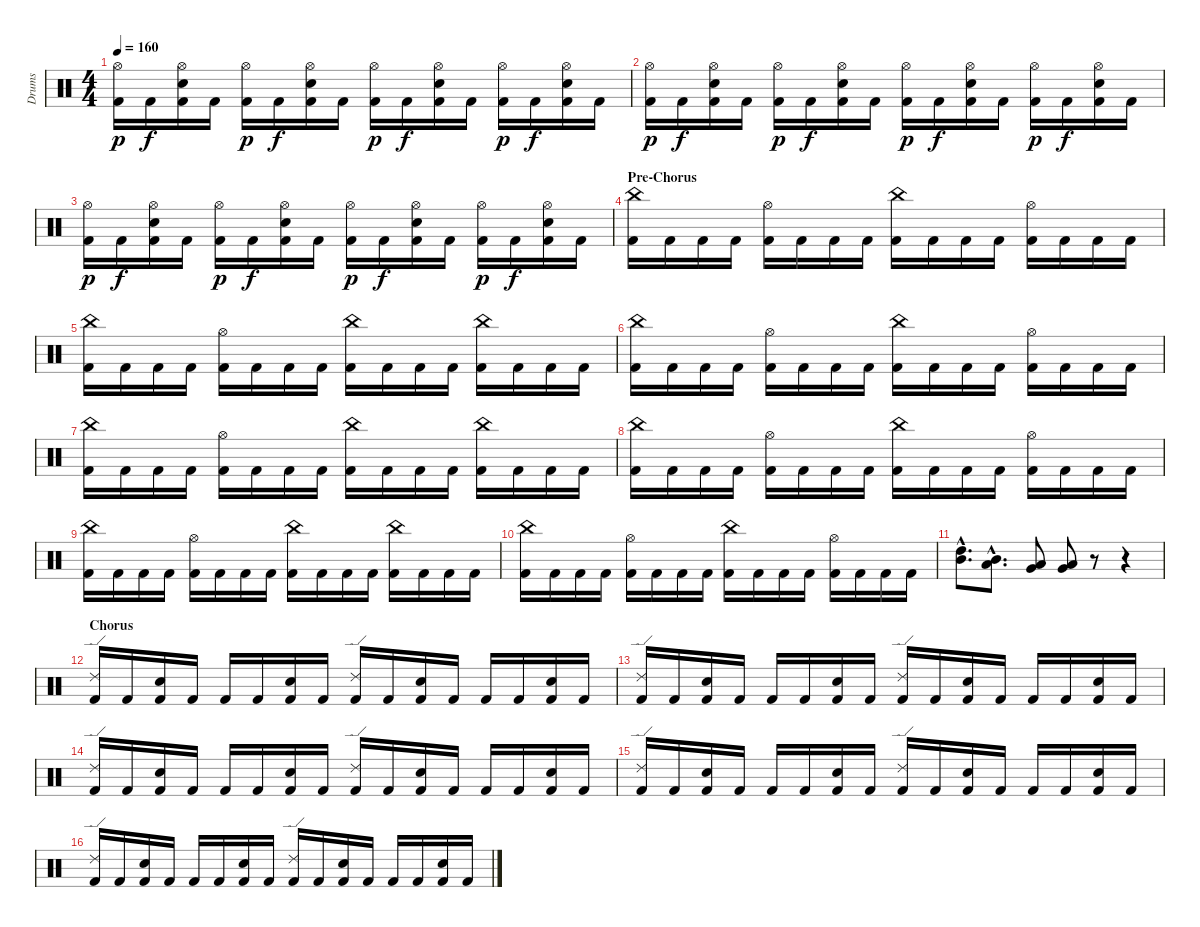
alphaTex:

\track ("Drums" "Drums") {instrument percussion}
\staff {score}
\articulation defaults
\ts (4 4)
\tempo 160
\clef neutral
\ks c
("Hi-Hat (open)" "Kick (hit) 2").16{dy p} "Kick (hit) 2".16{dy f} ("Hi-Hat (open)" "Electric Snare (hit)" "Kick (hit) 2").16 "Kick (hit) 2".16 ("Hi-Hat (open)" "Kick (hit) 2").16{dy p} "Kick (hit) 2".16{dy f} ("Hi-Hat (open)" "Electric Snare (hit)" "Kick (hit) 2").16 "Kick (hit) 2".16 ("Hi-Hat (open)" "Kick (hit) 2").16{dy p} "Kick (hit) 2".16{dy f} ("Hi-Hat (open)" "Electric Snare (hit)" "Kick (hit) 2").16 "Kick (hit) 2".16 ("Hi-Hat (open)" "Kick (hit) 2").16{dy p} "Kick (hit) 2".16{dy f} ("Hi-Hat (open)" "Electric Snare (hit)" "Kick (hit) 2").16 "Kick (hit) 2".16 |
("Hi-Hat (open)" "Kick (hit) 2").16{dy p} "Kick (hit) 2".16{dy f} ("Hi-Hat (open)" "Electric Snare (hit)" "Kick (hit) 2").16 "Kick (hit) 2".16 ("Hi-Hat (open)" "Kick (hit) 2").16{dy p} "Kick (hit) 2".16{dy f} ("Hi-Hat (open)" "Electric Snare (hit)" "Kick (hit) 2").16 "Kick (hit) 2".16 ("Hi-Hat (open)" "Kick (hit) 2").16{dy p} "Kick (hit) 2".16{dy f} ("Hi-Hat (open)" "Electric Snare (hit)" "Kick (hit) 2").16 "Kick (hit) 2".16 ("Hi-Hat (open)" "Kick (hit) 2").16{dy p} "Kick (hit) 2".16{dy f} ("Hi-Hat (open)" "Electric Snare (hit)" "Kick (hit) 2").16 "Kick (hit) 2".16 |
("Hi-Hat (open)" "Kick (hit) 2").16{dy p} "Kick (hit) 2".16{dy f} ("Hi-Hat (open)" "Electric Snare (hit)" "Kick (hit) 2").16 "Kick (hit) 2".16 ("Hi-Hat (open)" "Kick (hit) 2").16{dy p} "Kick (hit) 2".16{dy f} ("Hi-Hat (open)" "Electric Snare (hit)" "Kick (hit) 2").16 "Kick (hit) 2".16 ("Hi-Hat (open)" "Kick (hit) 2").16{dy p} "Kick (hit) 2".16{dy f} ("Hi-Hat (open)" "Electric Snare (hit)" "Kick (hit) 2").16 "Kick (hit) 2".16 ("Hi-Hat (open)" "Kick (hit) 2").16{dy p} "Kick (hit) 2".16{dy f} ("Hi-Hat (open)" "Electric Snare (hit)" "Kick (hit) 2").16 "Kick (hit) 2".16 |
\section ("" "Pre-Chorus")
("China (hit)" "Kick (hit) 2").16 "Kick (hit) 2".16 "Kick (hit) 2".16 "Kick (hit) 2".16 ("Hi-Hat (open)" "Kick (hit) 2").16 "Kick (hit) 2".16 "Kick (hit) 2".16 "Kick (hit) 2".16 ("China (hit)" "Kick (hit) 2").16 "Kick (hit) 2".16 "Kick (hit) 2".16 "Kick (hit) 2".16 ("Hi-Hat (open)" "Kick (hit) 2").16 "Kick (hit) 2".16 "Kick (hit) 2".16 "Kick (hit) 2".16 |
("China (hit)" "Kick (hit) 2").16 "Kick (hit) 2".16 "Kick (hit) 2".16 "Kick (hit) 2".16 ("Hi-Hat (open)" "Kick (hit) 2").16 "Kick (hit) 2".16 "Kick (hit) 2".16 "Kick (hit) 2".16 ("China (hit)" "Kick (hit) 2").16 "Kick (hit) 2".16 "Kick (hit) 2".16 "Kick (hit) 2".16 ("China (hit)" "Kick (hit) 2").16 "Kick (hit) 2".16 "Kick (hit) 2".16 "Kick (hit) 2".16 |
("China (hit)" "Kick (hit) 2").16 "Kick (hit) 2".16 "Kick (hit) 2".16 "Kick (hit) 2".16 ("Hi-Hat (open)" "Kick (hit) 2").16 "Kick (hit) 2".16 "Kick (hit) 2".16 "Kick (hit) 2".16 ("China (hit)" "Kick (hit) 2").16 "Kick (hit) 2".16 "Kick (hit) 2".16 "Kick (hit) 2".16 ("Hi-Hat (open)" "Kick (hit) 2").16 "Kick (hit) 2".16 "Kick (hit) 2".16 "Kick (hit) 2".16 |
("China (hit)" "Kick (hit) 2").16 "Kick (hit) 2".16 "Kick (hit) 2".16 "Kick (hit) 2".16 ("Hi-Hat (open)" "Kick (hit) 2").16 "Kick (hit) 2".16 "Kick (hit) 2".16 "Kick (hit) 2".16 ("China (hit)" "Kick (hit) 2").16 "Kick (hit) 2".16 "Kick (hit) 2".16 "Kick (hit) 2".16 ("China (hit)" "Kick (hit) 2").16 "Kick (hit) 2".16 "Kick (hit) 2".16 "Kick (hit) 2".16 |
("China (hit)" "Kick (hit) 2").16 "Kick (hit) 2".16 "Kick (hit) 2".16 "Kick (hit) 2".16 ("Hi-Hat (open)" "Kick (hit) 2").16 "Kick (hit) 2".16 "Kick (hit) 2".16 "Kick (hit) 2".16 ("China (hit)" "Kick (hit) 2").16 "Kick (hit) 2".16 "Kick (hit) 2".16 "Kick (hit) 2".16 ("Hi-Hat (open)" "Kick (hit) 2").16 "Kick (hit) 2".16 "Kick (hit) 2".16 "Kick (hit) 2".16 |
("China (hit)" "Kick (hit) 2").16 "Kick (hit) 2".16 "Kick (hit) 2".16 "Kick (hit) 2".16 ("Hi-Hat (open)" "Kick (hit) 2").16 "Kick (hit) 2".16 "Kick (hit) 2".16 "Kick (hit) 2".16 ("China (hit)" "Kick (hit) 2").16 "Kick (hit) 2".16 "Kick (hit) 2".16 "Kick (hit) 2".16 ("China (hit)" "Kick (hit) 2").16 "Kick (hit) 2".16 "Kick (hit) 2".16 "Kick (hit) 2".16 |
("China (hit)" "Kick (hit) 2").16 "Kick (hit) 2".16 "Kick (hit) 2".16 "Kick (hit) 2".16 ("Hi-Hat (open)" "Kick (hit) 2").16 "Kick (hit) 2".16 "Kick (hit) 2".16 "Kick (hit) 2".16 ("China (hit)" "Kick (hit) 2").16 "Kick (hit) 2".16 "Kick (hit) 2".16 "Kick (hit) 2".16 ("Hi-Hat (open)" "Kick (hit) 2").16 "Kick (hit) 2".16 "Kick (hit) 2".16 "Kick (hit) 2".16 |
("High Tom (hit)"{hac} "Mid Tom (hit)"{hac}).8{d} ("Mid Tom (hit)"{hac} "Low Tom (hit)"{hac}).8{d} ("Low Tom (hit)" "Very Low Tom (hit)").8 ("Very Low Tom (hit)" "Low Floor Tom (hit)").8 r.8 r.4 |
\section ("" "Chorus")
("Ride (edge) 2" "Kick (hit) 2").16 "Kick (hit) 2".16 ("Electric Snare (hit)" "Kick (hit) 2").16 "Kick (hit) 2".16 "Kick (hit) 2".16 "Kick (hit) 2".16 ("Electric Snare (hit)" "Kick (hit) 2").16 "Kick (hit) 2".16 ("Ride (edge) 2" "Kick (hit) 2").16 "Kick (hit) 2".16 ("Electric Snare (hit)" "Kick (hit) 2").16 "Kick (hit) 2".16 "Kick (hit) 2".16 "Kick (hit) 2".16 ("Electric Snare (hit)" "Kick (hit) 2").16 "Kick (hit) 2".16 |
("Ride (edge) 2" "Kick (hit) 2").16 "Kick (hit) 2".16 ("Electric Snare (hit)" "Kick (hit) 2").16 "Kick (hit) 2".16 "Kick (hit) 2".16 "Kick (hit) 2".16 ("Electric Snare (hit)" "Kick (hit) 2").16 "Kick (hit) 2".16 ("Ride (edge) 2" "Kick (hit) 2").16 "Kick (hit) 2".16 ("Electric Snare (hit)" "Kick (hit) 2").16 "Kick (hit) 2".16 "Kick (hit) 2".16 "Kick (hit) 2".16 ("Electric Snare (hit)" "Kick (hit) 2").16 "Kick (hit) 2".16 |
("Ride (edge) 2" "Kick (hit) 2").16 "Kick (hit) 2".16 ("Electric Snare (hit)" "Kick (hit) 2").16 "Kick (hit) 2".16 "Kick (hit) 2".16 "Kick (hit) 2".16 ("Electric Snare (hit)" "Kick (hit) 2").16 "Kick (hit) 2".16 ("Ride (edge) 2" "Kick (hit) 2").16 "Kick (hit) 2".16 ("Electric Snare (hit)" "Kick (hit) 2").16 "Kick (hit) 2".16 "Kick (hit) 2".16 "Kick (hit) 2".16 ("Electric Snare (hit)" "Kick (hit) 2").16 "Kick (hit) 2".16 |
("Ride (edge) 2" "Kick (hit) 2").16 "Kick (hit) 2".16 ("Electric Snare (hit)" "Kick (hit) 2").16 "Kick (hit) 2".16 "Kick (hit) 2".16 "Kick (hit) 2".16 ("Electric Snare (hit)" "Kick (hit) 2").16 "Kick (hit) 2".16 ("Ride (edge) 2" "Kick (hit) 2").16 "Kick (hit) 2".16 ("Electric Snare (hit)" "Kick (hit) 2").16 "Kick (hit) 2".16 "Kick (hit) 2".16 "Kick (hit) 2".16 ("Electric Snare (hit)" "Kick (hit) 2").16 "Kick (hit) 2".16 |
("Ride (edge) 2" "Kick (hit) 2").16 "Kick (hit) 2".16 ("Electric Snare (hit)" "Kick (hit) 2").16 "Kick (hit) 2".16 "Kick (hit) 2".16 "Kick (hit) 2".16 ("Electric Snare (hit)" "Kick (hit) 2").16 "Kick (hit) 2".16 ("Ride (edge) 2" "Kick (hit) 2").16 "Kick (hit) 2".16 ("Electric Snare (hit)" "Kick (hit) 2").16 "Kick (hit) 2".16 "Kick (hit) 2".16 "Kick (hit) 2".16 ("Electric Snare (hit)" "Kick (hit) 2").16 "Kick (hit) 2".16
